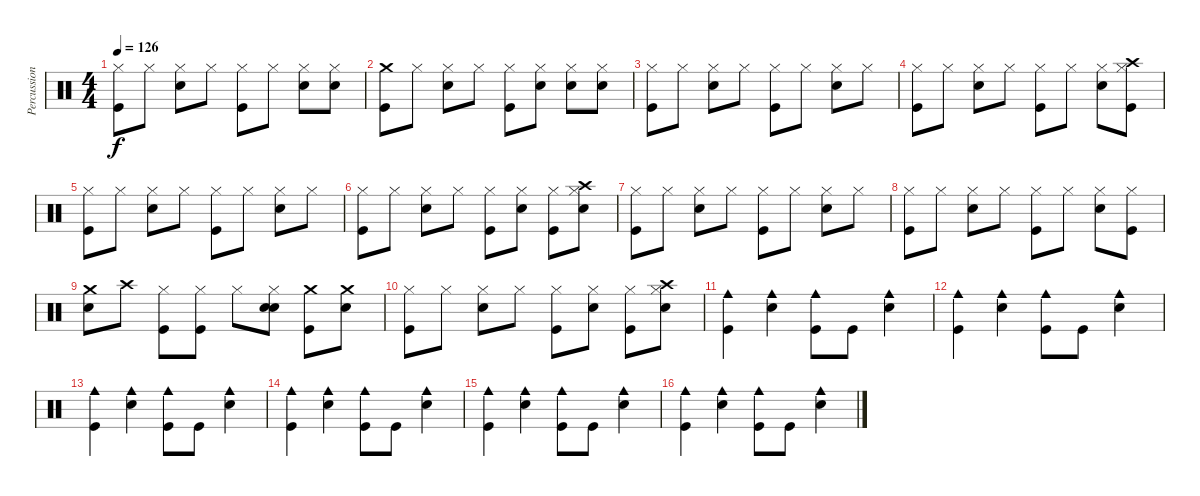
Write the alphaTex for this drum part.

\track ("Percussion" "Percussion") {instrument percussion}
\staff {score}
\articulation defaults
\ts (4 4)
\tempo 126
\clef neutral
\ks c
("Hi-Hat (closed)" "Kick (hit)").8{dy f} "Hi-Hat (closed)".8 ("Hi-Hat (closed)" "Electric Snare (hit)").8 "Hi-Hat (closed)".8 ("Hi-Hat (closed)" "Kick (hit)").8 "Hi-Hat (closed)".8 ("Hi-Hat (closed)" "Electric Snare (hit)").8 ("Hi-Hat (closed)" "Electric Snare (hit)").8 |
("Crash medium (hit)" "Kick (hit)").8 "Hi-Hat (closed)".8 ("Hi-Hat (closed)" "Electric Snare (hit)").8 "Hi-Hat (closed)".8 ("Hi-Hat (closed)" "Kick (hit)").8 ("Hi-Hat (closed)" "Electric Snare (hit)").8 ("Hi-Hat (closed)" "Electric Snare (hit)").8 ("Hi-Hat (closed)" "Electric Snare (hit)").8 |
("Hi-Hat (closed)" "Kick (hit)").8 "Hi-Hat (closed)".8 ("Hi-Hat (closed)" "Electric Snare (hit)").8 "Hi-Hat (closed)".8 ("Hi-Hat (closed)" "Kick (hit)").8 "Hi-Hat (closed)".8 ("Hi-Hat (closed)" "Electric Snare (hit)").8 "Hi-Hat (closed)".8 |
("Hi-Hat (closed)" "Kick (hit)").8 "Hi-Hat (closed)".8 ("Hi-Hat (closed)" "Electric Snare (hit)").8 "Hi-Hat (closed)".8 ("Hi-Hat (closed)" "Kick (hit)").8 "Hi-Hat (closed)".8 ("Hi-Hat (closed)" "Electric Snare (hit)").8 ("Hi-Hat (closed)" "Crash high (hit)" "Kick (hit)").8 |
("Hi-Hat (closed)" "Kick (hit)").8 "Hi-Hat (closed)".8 ("Hi-Hat (closed)" "Electric Snare (hit)").8 "Hi-Hat (closed)".8 ("Hi-Hat (closed)" "Kick (hit)").8 "Hi-Hat (closed)".8 ("Hi-Hat (closed)" "Electric Snare (hit)").8 "Hi-Hat (closed)".8 |
("Hi-Hat (closed)" "Kick (hit)").8 "Hi-Hat (closed)".8 ("Hi-Hat (closed)" "Electric Snare (hit)").8 "Hi-Hat (closed)".8 ("Hi-Hat (closed)" "Kick (hit)").8 ("Hi-Hat (closed)" "Electric Snare (hit)").8 ("Hi-Hat (closed)" "Kick (hit)").8 ("Hi-Hat (closed)" "Crash high (hit)" "Electric Snare (hit)").8 |
("Hi-Hat (closed)" "Kick (hit)").8 "Hi-Hat (closed)".8 ("Hi-Hat (closed)" "Electric Snare (hit)").8 "Hi-Hat (closed)".8 ("Hi-Hat (closed)" "Kick (hit)").8 "Hi-Hat (closed)".8 ("Hi-Hat (closed)" "Electric Snare (hit)").8 "Hi-Hat (closed)".8 |
("Hi-Hat (closed)" "Kick (hit)").8 "Hi-Hat (closed)".8 ("Hi-Hat (closed)" "Electric Snare (hit)").8 "Hi-Hat (closed)".8 ("Hi-Hat (closed)" "Kick (hit)").8 "Hi-Hat (closed)".8 ("Hi-Hat (closed)" "Electric Snare (hit)").8 ("Hi-Hat (closed)" "Kick (hit)").8 |
("Crash medium (hit)" "Electric Snare (hit)").8 "Crash high (hit)".8 ("Hi-Hat (closed)" "Kick (hit)").8 ("Hi-Hat (closed)" "Kick (hit)").8 "Hi-Hat (closed)".8 ("Hi-Hat (closed)" "Electric Snare (hit)" "Electric Snare (hit)").8 ("Crash medium (hit)" "Kick (hit)").8 ("Crash medium (hit)" "Electric Snare (hit)").8 |
("Hi-Hat (closed)" "Kick (hit)").8 "Hi-Hat (closed)".8 ("Hi-Hat (closed)" "Electric Snare (hit)").8 "Hi-Hat (closed)".8 ("Hi-Hat (closed)" "Kick (hit)").8 ("Hi-Hat (closed)" "Electric Snare (hit)").8 ("Hi-Hat (closed)" "Kick (hit)").8 ("Hi-Hat (closed)" "Crash high (hit)" "Electric Snare (hit)").8 |
("Cowbell medium (hit)" "Kick (hit)").4 ("Cowbell medium (hit)" "Electric Snare (hit)").4 ("Cowbell medium (hit)" "Kick (hit)").8 "Kick (hit)".8 ("Cowbell medium (hit)" "Electric Snare (hit)").4 |
("Cowbell medium (hit)" "Kick (hit)").4 ("Cowbell medium (hit)" "Electric Snare (hit)").4 ("Cowbell medium (hit)" "Kick (hit)").8 "Kick (hit)".8 ("Cowbell medium (hit)" "Electric Snare (hit)").4 |
("Cowbell medium (hit)" "Kick (hit)").4 ("Cowbell medium (hit)" "Electric Snare (hit)").4 ("Cowbell medium (hit)" "Kick (hit)").8 "Kick (hit)".8 ("Cowbell medium (hit)" "Electric Snare (hit)").4 |
("Cowbell medium (hit)" "Kick (hit)").4 ("Cowbell medium (hit)" "Electric Snare (hit)").4 ("Cowbell medium (hit)" "Kick (hit)").8 "Kick (hit)".8 ("Cowbell medium (hit)" "Electric Snare (hit)").4 |
("Cowbell medium (hit)" "Kick (hit)").4 ("Cowbell medium (hit)" "Electric Snare (hit)").4 ("Cowbell medium (hit)" "Kick (hit)").8 "Kick (hit)".8 ("Cowbell medium (hit)" "Electric Snare (hit)").4 |
("Cowbell medium (hit)" "Kick (hit)").4 ("Cowbell medium (hit)" "Electric Snare (hit)").4 ("Cowbell medium (hit)" "Kick (hit)").8 "Kick (hit)".8 ("Cowbell medium (hit)" "Electric Snare (hit)").4
